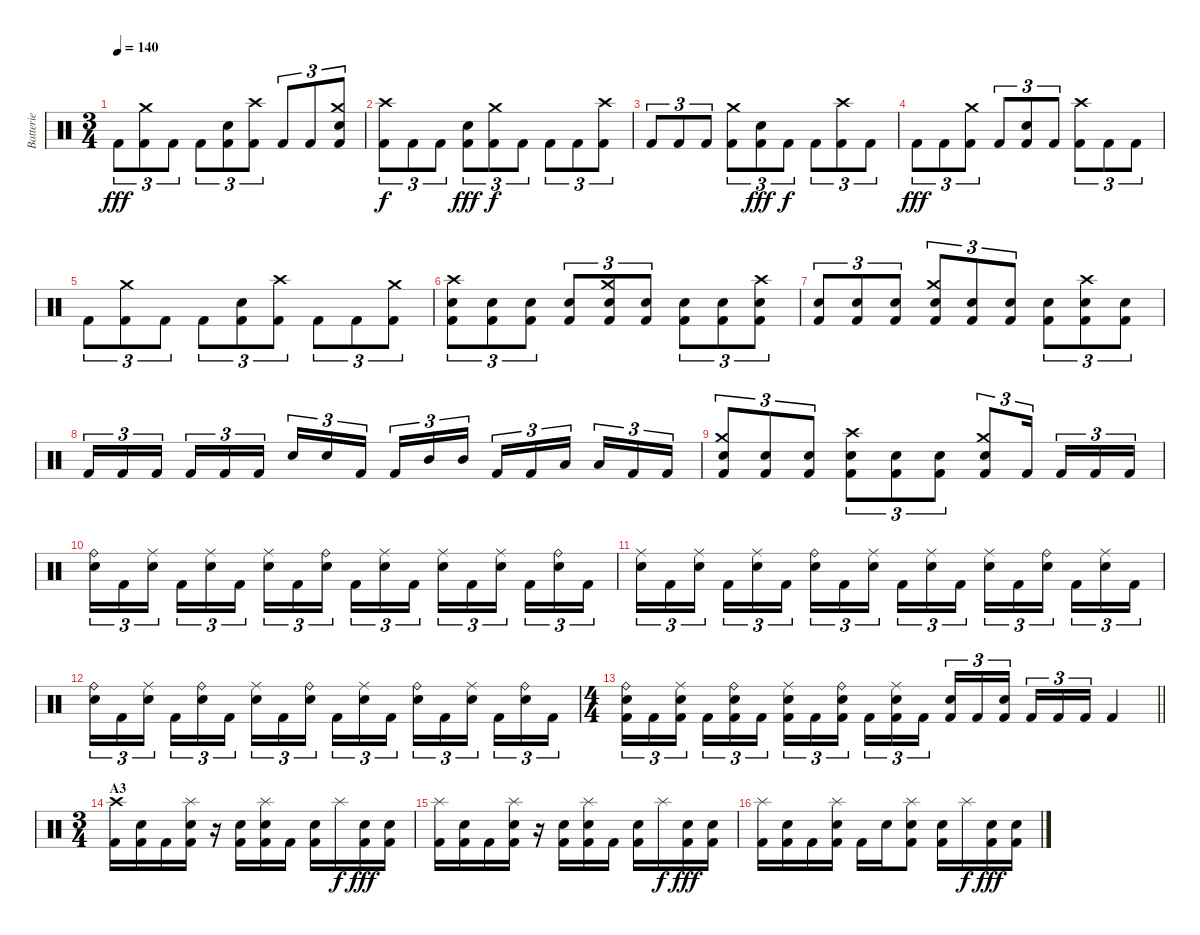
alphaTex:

\track ("Batterie" "Batterie") {instrument percussion}
\staff {score}
\articulation defaults
\ts (3 4)
\tempo 140
\clef neutral
\ks c "Kick (hit) 2".8{tu (3 2) dy fff}
("Crash medium (hit)" "Kick (hit) 2").8{tu (3 2)} "Kick (hit) 2".8{tu (3 2)} "Kick (hit) 2".8{tu (3 2)} ("Electric Snare (hit)" "Kick (hit) 2").8{tu (3 2)} ("Crash high (hit)" "Kick (hit) 2").8{tu (3 2)} "Kick (hit) 2".8{tu (3 2)} "Kick (hit) 2".8{tu (3 2)} ("Crash medium (hit)" "Electric Snare (hit)" "Kick (hit) 2").8{tu (3 2)} |
("Crash high (hit)" "Kick (hit) 2").8{tu (3 2) dy f} "Kick (hit) 2".8{tu (3 2)} "Kick (hit) 2".8{tu (3 2)} ("Electric Snare (hit)" "Kick (hit) 2").8{tu (3 2) dy fff} ("Crash medium (hit)" "Kick (hit) 2").8{tu (3 2) dy f} "Kick (hit) 2".8{tu (3 2)} "Kick (hit) 2".8{tu (3 2)} "Kick (hit) 2".8{tu (3 2)} ("Crash high (hit)" "Kick (hit) 2").8{tu (3 2)} |
"Kick (hit) 2".8{tu (3 2)} "Kick (hit) 2".8{tu (3 2)} "Kick (hit) 2".8{tu (3 2)} ("Crash medium (hit)" "Kick (hit) 2").8{tu (3 2)} ("Electric Snare (hit)" "Kick (hit) 2").8{tu (3 2) dy fff} "Kick (hit) 2".8{tu (3 2) dy f} "Kick (hit) 2".8{tu (3 2)} ("Crash high (hit)" "Kick (hit) 2").8{tu (3 2)} "Kick (hit) 2".8{tu (3 2)} |
"Kick (hit) 2".8{tu (3 2) dy fff} "Kick (hit) 2".8{tu (3 2)} ("Crash medium (hit)" "Kick (hit) 2").8{tu (3 2)} "Kick (hit) 2".8{tu (3 2)} ("Electric Snare (hit)" "Kick (hit) 2").8{tu (3 2)} "Kick (hit) 2".8{tu (3 2)} ("Crash high (hit)" "Kick (hit) 2").8{tu (3 2)} "Kick (hit) 2".8{tu (3 2)} "Kick (hit) 2".8{tu (3 2)} |
"Kick (hit) 2".8{tu (3 2)} ("Crash medium (hit)" "Kick (hit) 2").8{tu (3 2)} "Kick (hit) 2".8{tu (3 2)} "Kick (hit) 2".8{tu (3 2)} ("Electric Snare (hit)" "Kick (hit) 2").8{tu (3 2)} ("Crash high (hit)" "Kick (hit) 2").8{tu (3 2)} "Kick (hit) 2".8{tu (3 2)} "Kick (hit) 2".8{tu (3 2)} ("Crash medium (hit)" "Kick (hit) 2").8{tu (3 2)} |
("Crash high (hit)" "Electric Snare (hit)" "Kick (hit) 2").8{tu (3 2)} ("Electric Snare (hit)" "Kick (hit) 2").8{tu (3 2)} ("Electric Snare (hit)" "Kick (hit) 2").8{tu (3 2)} ("Electric Snare (hit)" "Kick (hit) 2").8{tu (3 2)} ("Crash medium (hit)" "Electric Snare (hit)" "Kick (hit) 2").8{tu (3 2)} ("Electric Snare (hit)" "Kick (hit) 2").8{tu (3 2)} ("Electric Snare (hit)" "Kick (hit) 2").8{tu (3 2)} ("Electric Snare (hit)" "Kick (hit) 2").8{tu (3 2)} ("Crash high (hit)" "Electric Snare (hit)" "Kick (hit) 2").8{tu (3 2)} |
("Electric Snare (hit)" "Kick (hit) 2").8{tu (3 2)} ("Electric Snare (hit)" "Kick (hit) 2").8{tu (3 2)} ("Electric Snare (hit)" "Kick (hit) 2").8{tu (3 2)} ("Crash medium (hit)" "Electric Snare (hit)" "Kick (hit) 2").8{tu (3 2)} ("Electric Snare (hit)" "Kick (hit) 2").8{tu (3 2)} ("Electric Snare (hit)" "Kick (hit) 2").8{tu (3 2)} ("Electric Snare (hit)" "Kick (hit) 2").8{tu (3 2)} ("Crash high (hit)" "Electric Snare (hit)" "Kick (hit) 2").8{tu (3 2)} ("Electric Snare (hit)" "Kick (hit) 2").8{tu (3 2)} |
"Kick (hit) 2".16{tu (3 2)} "Kick (hit) 2".16{tu (3 2)} "Kick (hit) 2".16{tu (3 2) beam splitsecondary} "Kick (hit) 2".16{tu (3 2)} "Kick (hit) 2".16{tu (3 2)} "Kick (hit) 2".16{tu (3 2)} "Electric Snare (hit)".16{tu (3 2)} "Electric Snare (hit)".16{tu (3 2)} "Kick (hit) 2".16{tu (3 2) beam splitsecondary} "Kick (hit) 2".16{tu (3 2)} "Mid Tom (hit)".16{tu (3 2)} "Mid Tom (hit)".16{tu (3 2)} "Kick (hit) 2".16{tu (3 2)} "Kick (hit) 2".16{tu (3 2)} "Low Tom (hit)".16{tu (3 2) beam splitsecondary} "Low Tom (hit)".16{tu (3 2)} "Kick (hit) 2".16{tu (3 2)} "Kick (hit) 2".16{tu (3 2)} |
("Crash medium (hit)" "Electric Snare (hit)" "Kick (hit) 2").8{tu (3 2)} ("Electric Snare (hit)" "Kick (hit) 2").8{tu (3 2)} ("Electric Snare (hit)" "Kick (hit) 2").8{tu (3 2)} ("Crash high (hit)" "Electric Snare (hit)" "Kick (hit) 2").8{tu (3 2)} ("Electric Snare (hit)" "Kick (hit) 2").8{tu (3 2)} ("Electric Snare (hit)" "Kick (hit) 2").8{tu (3 2)} ("Crash medium (hit)" "Electric Snare (hit)" "Kick (hit) 2").8{tu (3 2)} "Kick (hit) 2".16{tu (3 2) beam splitsecondary} "Kick (hit) 2".16{tu (3 2)} "Kick (hit) 2".16{tu (3 2)} "Kick (hit) 2".16{tu (3 2)} |
("Ride (bell)" "Electric Snare (hit)").16{tu (3 2)} "Kick (hit) 2".16{tu (3 2)} ("Ride (middle)" "Electric Snare (hit)").16{tu (3 2) beam splitsecondary} "Kick (hit) 2".16{tu (3 2)} ("Ride (middle)" "Electric Snare (hit)").16{tu (3 2)} "Kick (hit) 2".16{tu (3 2)} ("Ride (middle)" "Electric Snare (hit)").16{tu (3 2)} "Kick (hit) 2".16{tu (3 2)} ("Ride (bell)" "Electric Snare (hit)").16{tu (3 2) beam splitsecondary} "Kick (hit) 2".16{tu (3 2)} ("Ride (middle)" "Electric Snare (hit)").16{tu (3 2)} "Kick (hit) 2".16{tu (3 2)} ("Ride (middle)" "Electric Snare (hit)").16{tu (3 2)} "Kick (hit) 2".16{tu (3 2)} ("Ride (middle)" "Electric Snare (hit)").16{tu (3 2) beam splitsecondary} "Kick (hit) 2".16{tu (3 2)} ("Ride (bell)" "Electric Snare (hit)").16{tu (3 2)} "Kick (hit) 2".16{tu (3 2)} |
("Ride (middle)" "Electric Snare (hit)").16{tu (3 2)} "Kick (hit) 2".16{tu (3 2)} ("Ride (middle)" "Electric Snare (hit)").16{tu (3 2) beam splitsecondary} "Kick (hit) 2".16{tu (3 2)} ("Ride (middle)" "Electric Snare (hit)").16{tu (3 2)} "Kick (hit) 2".16{tu (3 2)} ("Ride (bell)" "Electric Snare (hit)").16{tu (3 2)} "Kick (hit) 2".16{tu (3 2)} ("Ride (middle)" "Electric Snare (hit)").16{tu (3 2) beam splitsecondary} "Kick (hit) 2".16{tu (3 2)} ("Ride (middle)" "Electric Snare (hit)").16{tu (3 2)} "Kick (hit) 2".16{tu (3 2)} ("Ride (middle)" "Electric Snare (hit)").16{tu (3 2)} "Kick (hit) 2".16{tu (3 2)} ("Ride (bell)" "Electric Snare (hit)").16{tu (3 2) beam splitsecondary} "Kick (hit) 2".16{tu (3 2)} ("Ride (middle)" "Electric Snare (hit)").16{tu (3 2)} "Kick (hit) 2".16{tu (3 2)} |
("Ride (bell)" "Electric Snare (hit)").16{tu (3 2)} "Kick (hit) 2".16{tu (3 2)} ("Ride (middle)" "Electric Snare (hit)").16{tu (3 2) beam splitsecondary} "Kick (hit) 2".16{tu (3 2)} ("Ride (bell)" "Electric Snare (hit)").16{tu (3 2)} "Kick (hit) 2".16{tu (3 2)} ("Ride (middle)" "Electric Snare (hit)").16{tu (3 2)} "Kick (hit) 2".16{tu (3 2)} ("Ride (bell)" "Electric Snare (hit)").16{tu (3 2) beam splitsecondary} "Kick (hit) 2".16{tu (3 2)} ("Ride (middle)" "Electric Snare (hit)").16{tu (3 2)} "Kick (hit) 2".16{tu (3 2)} ("Ride (bell)" "Electric Snare (hit)").16{tu (3 2)} "Kick (hit) 2".16{tu (3 2)} ("Ride (middle)" "Electric Snare (hit)").16{tu (3 2) beam splitsecondary} "Kick (hit) 2".16{tu (3 2)} ("Ride (bell)" "Electric Snare (hit)").16{tu (3 2)} "Kick (hit) 2".16{tu (3 2)} |
\ts (4 4)
\barLineRight lightlight
("Ride (bell)" "Electric Snare (hit)" "Kick (hit) 2").16{tu (3 2)} "Kick (hit) 2".16{tu (3 2)} ("Ride (middle)" "Electric Snare (hit)" "Kick (hit) 2").16{tu (3 2) beam splitsecondary} "Kick (hit) 2".16{tu (3 2)} ("Ride (bell)" "Electric Snare (hit)" "Kick (hit) 2").16{tu (3 2)} "Kick (hit) 2".16{tu (3 2)} ("Ride (middle)" "Electric Snare (hit)" "Kick (hit) 2").16{tu (3 2)} "Kick (hit) 2".16{tu (3 2)} ("Ride (bell)" "Electric Snare (hit)" "Kick (hit) 2").16{tu (3 2) beam splitsecondary} "Kick (hit) 2".16{tu (3 2)} ("Ride (middle)" "Electric Snare (hit)" "Kick (hit) 2").16{tu (3 2)} "Kick (hit) 2".16{tu (3 2)} ("Electric Snare (hit)" "Kick (hit) 2").16{tu (3 2)} "Kick (hit) 2".16{tu (3 2)} ("Electric Snare (hit)" "Kick (hit) 2").16{tu (3 2) beam splitsecondary} "Kick (hit) 2".16{tu (3 2)} "Kick (hit) 2".16{tu (3 2)} "Kick (hit) 2".16{tu (3 2)} "Kick (hit) 2".4 |
\ts (3 4)
\section ("" "A3")
("Crash high (hit)" "Kick (hit) 2").16 ("Electric Snare (hit)" "Kick (hit) 2").16 "Kick (hit) 2".16 ("Splash (hit)" "Electric Snare (hit)" "Kick (hit) 2").16 r.16 ("Electric Snare (hit)" "Kick (hit) 2").16 ("Splash (hit)" "Electric Snare (hit)" "Kick (hit) 2").16 "Kick (hit) 2".16 ("Electric Snare (hit)" "Kick (hit) 2").16 "Splash (hit)".16{dy f} ("Electric Snare (hit)" "Kick (hit) 2").16{dy fff} ("Electric Snare (hit)" "Kick (hit) 2").16 |
("Splash (hit)" "Kick (hit) 2").16 ("Electric Snare (hit)" "Kick (hit) 2").16 "Kick (hit) 2".16 ("Splash (hit)" "Electric Snare (hit)" "Kick (hit) 2").16 r.16 ("Electric Snare (hit)" "Kick (hit) 2").16 ("Splash (hit)" "Electric Snare (hit)" "Kick (hit) 2").16 "Kick (hit) 2".16 ("Electric Snare (hit)" "Kick (hit) 2").16 "Splash (hit)".16{dy f} ("Electric Snare (hit)" "Kick (hit) 2").16{dy fff} ("Electric Snare (hit)" "Kick (hit) 2").16 |
("Splash (hit)" "Kick (hit) 2").16 ("Electric Snare (hit)" "Kick (hit) 2").16 "Kick (hit) 2".16 ("Splash (hit)" "Electric Snare (hit)" "Kick (hit) 2").16 "Kick (hit) 2".16 "Electric Snare (hit)".16 ("Splash (hit)" "Electric Snare (hit)" "Kick (hit) 2").8 ("Electric Snare (hit)" "Kick (hit) 2").16 "Splash (hit)".16{dy f} ("Electric Snare (hit)" "Kick (hit) 2").16{dy fff} ("Electric Snare (hit)" "Kick (hit) 2").16
